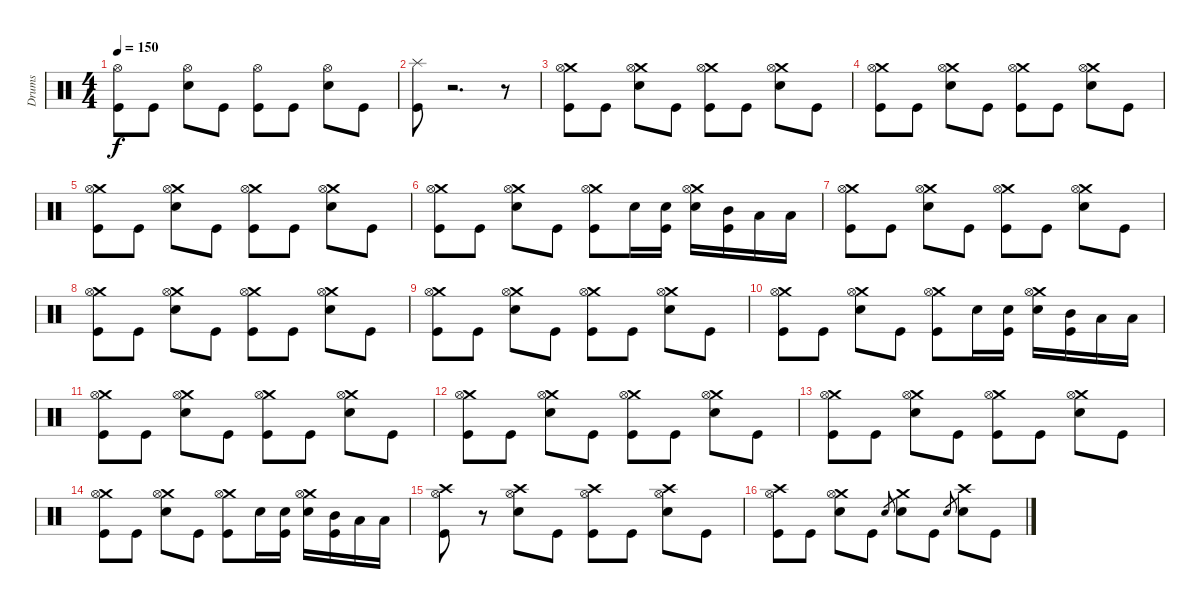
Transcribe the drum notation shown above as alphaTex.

\track ("Drums" "Drums") {instrument percussion}
\staff {score}
\articulation defaults
\ts (4 4)
\tempo 150
\clef neutral
\ks c
("Hi-Hat (open)" "Kick (hit)").8{dy f} "Kick (hit)".8 ("Hi-Hat (open)" "Snare (hit) 2").8 "Kick (hit)".8 ("Hi-Hat (open)" "Kick (hit)").8 "Kick (hit)".8 ("Hi-Hat (open)" "Snare (hit) 2").8 "Kick (hit)".8 |
("Splash (hit)" "Kick (hit)").8 r.2{d} r.8 |
("Crash medium (hit)" "Hi-Hat (open)" "Kick (hit)").8 "Kick (hit)".8 ("Crash medium (hit)" "Hi-Hat (open)" "Snare (hit) 2").8 "Kick (hit)".8 ("Crash medium (hit)" "Hi-Hat (open)" "Kick (hit)").8 "Kick (hit)".8 ("Crash medium (hit)" "Hi-Hat (open)" "Snare (hit) 2").8 "Kick (hit)".8 |
("Crash medium (hit)" "Hi-Hat (open)" "Kick (hit)").8 "Kick (hit)".8 ("Crash medium (hit)" "Hi-Hat (open)" "Snare (hit) 2").8 "Kick (hit)".8 ("Crash medium (hit)" "Hi-Hat (open)" "Kick (hit)").8 "Kick (hit)".8 ("Crash medium (hit)" "Hi-Hat (open)" "Snare (hit) 2").8 "Kick (hit)".8 |
("Crash medium (hit)" "Hi-Hat (open)" "Kick (hit)").8 "Kick (hit)".8 ("Crash medium (hit)" "Hi-Hat (open)" "Snare (hit) 2").8 "Kick (hit)".8 ("Crash medium (hit)" "Hi-Hat (open)" "Kick (hit)").8 "Kick (hit)".8 ("Crash medium (hit)" "Hi-Hat (open)" "Snare (hit) 2").8 "Kick (hit)".8 |
("Crash medium (hit)" "Hi-Hat (open)" "Kick (hit)").8 "Kick (hit)".8 ("Crash medium (hit)" "Hi-Hat (open)" "Snare (hit) 2").8 "Kick (hit)".8 ("Crash medium (hit)" "Hi-Hat (open)" "Kick (hit)").8 "Snare (hit) 2".16 ("Snare (hit) 2" "Kick (hit)").16 ("Crash medium (hit)" "Hi-Hat (open)" "Snare (hit) 2").16 ("Mid Tom (hit)" "Kick (hit)").16 "Low Tom (hit)".16 "Low Tom (hit)".16 |
("Crash medium (hit)" "Hi-Hat (open)" "Kick (hit)").8 "Kick (hit)".8 ("Crash medium (hit)" "Hi-Hat (open)" "Snare (hit) 2").8 "Kick (hit)".8 ("Crash medium (hit)" "Hi-Hat (open)" "Kick (hit)").8 "Kick (hit)".8 ("Crash medium (hit)" "Hi-Hat (open)" "Snare (hit) 2").8 "Kick (hit)".8 |
("Crash medium (hit)" "Hi-Hat (open)" "Kick (hit)").8 "Kick (hit)".8 ("Crash medium (hit)" "Hi-Hat (open)" "Snare (hit) 2").8 "Kick (hit)".8 ("Crash medium (hit)" "Hi-Hat (open)" "Kick (hit)").8 "Kick (hit)".8 ("Crash medium (hit)" "Hi-Hat (open)" "Snare (hit) 2").8 "Kick (hit)".8 |
("Crash medium (hit)" "Hi-Hat (open)" "Kick (hit)").8 "Kick (hit)".8 ("Crash medium (hit)" "Hi-Hat (open)" "Snare (hit) 2").8 "Kick (hit)".8 ("Crash medium (hit)" "Hi-Hat (open)" "Kick (hit)").8 "Kick (hit)".8 ("Crash medium (hit)" "Hi-Hat (open)" "Snare (hit) 2").8 "Kick (hit)".8 |
("Crash medium (hit)" "Hi-Hat (open)" "Kick (hit)").8 "Kick (hit)".8 ("Crash medium (hit)" "Hi-Hat (open)" "Snare (hit) 2").8 "Kick (hit)".8 ("Crash medium (hit)" "Hi-Hat (open)" "Kick (hit)").8 "Snare (hit) 2".16 ("Snare (hit) 2" "Kick (hit)").16 ("Crash medium (hit)" "Hi-Hat (open)" "Snare (hit) 2").16 ("Mid Tom (hit)" "Kick (hit)").16 "Low Tom (hit)".16 "Low Tom (hit)".16 |
("Crash medium (hit)" "Hi-Hat (open)" "Kick (hit)").8 "Kick (hit)".8 ("Crash medium (hit)" "Hi-Hat (open)" "Snare (hit) 2").8 "Kick (hit)".8 ("Crash medium (hit)" "Hi-Hat (open)" "Kick (hit)").8 "Kick (hit)".8 ("Crash medium (hit)" "Hi-Hat (open)" "Snare (hit) 2").8 "Kick (hit)".8 |
("Crash medium (hit)" "Hi-Hat (open)" "Kick (hit)").8 "Kick (hit)".8 ("Crash medium (hit)" "Hi-Hat (open)" "Snare (hit) 2").8 "Kick (hit)".8 ("Crash medium (hit)" "Hi-Hat (open)" "Kick (hit)").8 "Kick (hit)".8 ("Crash medium (hit)" "Hi-Hat (open)" "Snare (hit) 2").8 "Kick (hit)".8 |
("Crash medium (hit)" "Hi-Hat (open)" "Kick (hit)").8 "Kick (hit)".8 ("Crash medium (hit)" "Hi-Hat (open)" "Snare (hit) 2").8 "Kick (hit)".8 ("Crash medium (hit)" "Hi-Hat (open)" "Kick (hit)").8 "Kick (hit)".8 ("Crash medium (hit)" "Hi-Hat (open)" "Snare (hit) 2").8 "Kick (hit)".8 |
("Crash medium (hit)" "Hi-Hat (open)" "Kick (hit)").8 "Kick (hit)".8 ("Crash medium (hit)" "Hi-Hat (open)" "Snare (hit) 2").8 "Kick (hit)".8 ("Crash medium (hit)" "Hi-Hat (open)" "Kick (hit)").8 "Snare (hit) 2".16 ("Snare (hit) 2" "Kick (hit)").16 ("Crash medium (hit)" "Hi-Hat (open)" "Snare (hit) 2").16 ("Mid Tom (hit)" "Kick (hit)").16 "Low Tom (hit)".16 "Low Tom (hit)".16 |
("Crash high (hit)" "Hi-Hat (open)" "Kick (hit)").8 r.8 ("Crash high (hit)" "Hi-Hat (open)" "Snare (hit) 2").8 "Kick (hit)".8 ("Crash high (hit)" "Hi-Hat (open)" "Kick (hit)").8 "Kick (hit)".8 ("Crash high (hit)" "Hi-Hat (open)" "Snare (hit) 2").8 "Kick (hit)".8 |
("Crash high (hit)" "Hi-Hat (open)" "Kick (hit)").8 "Kick (hit)".8 ("Crash medium (hit)" "Hi-Hat (open)" "Snare (hit) 2").8 "Kick (hit)".8 "Snare (hit) 2".8{gr} ("Crash medium (hit)" "Snare (hit) 2").8 "Kick (hit)".8 "Snare (hit) 2".8{gr} ("Crash high (hit)" "Snare (hit) 2").8 "Kick (hit)".8
